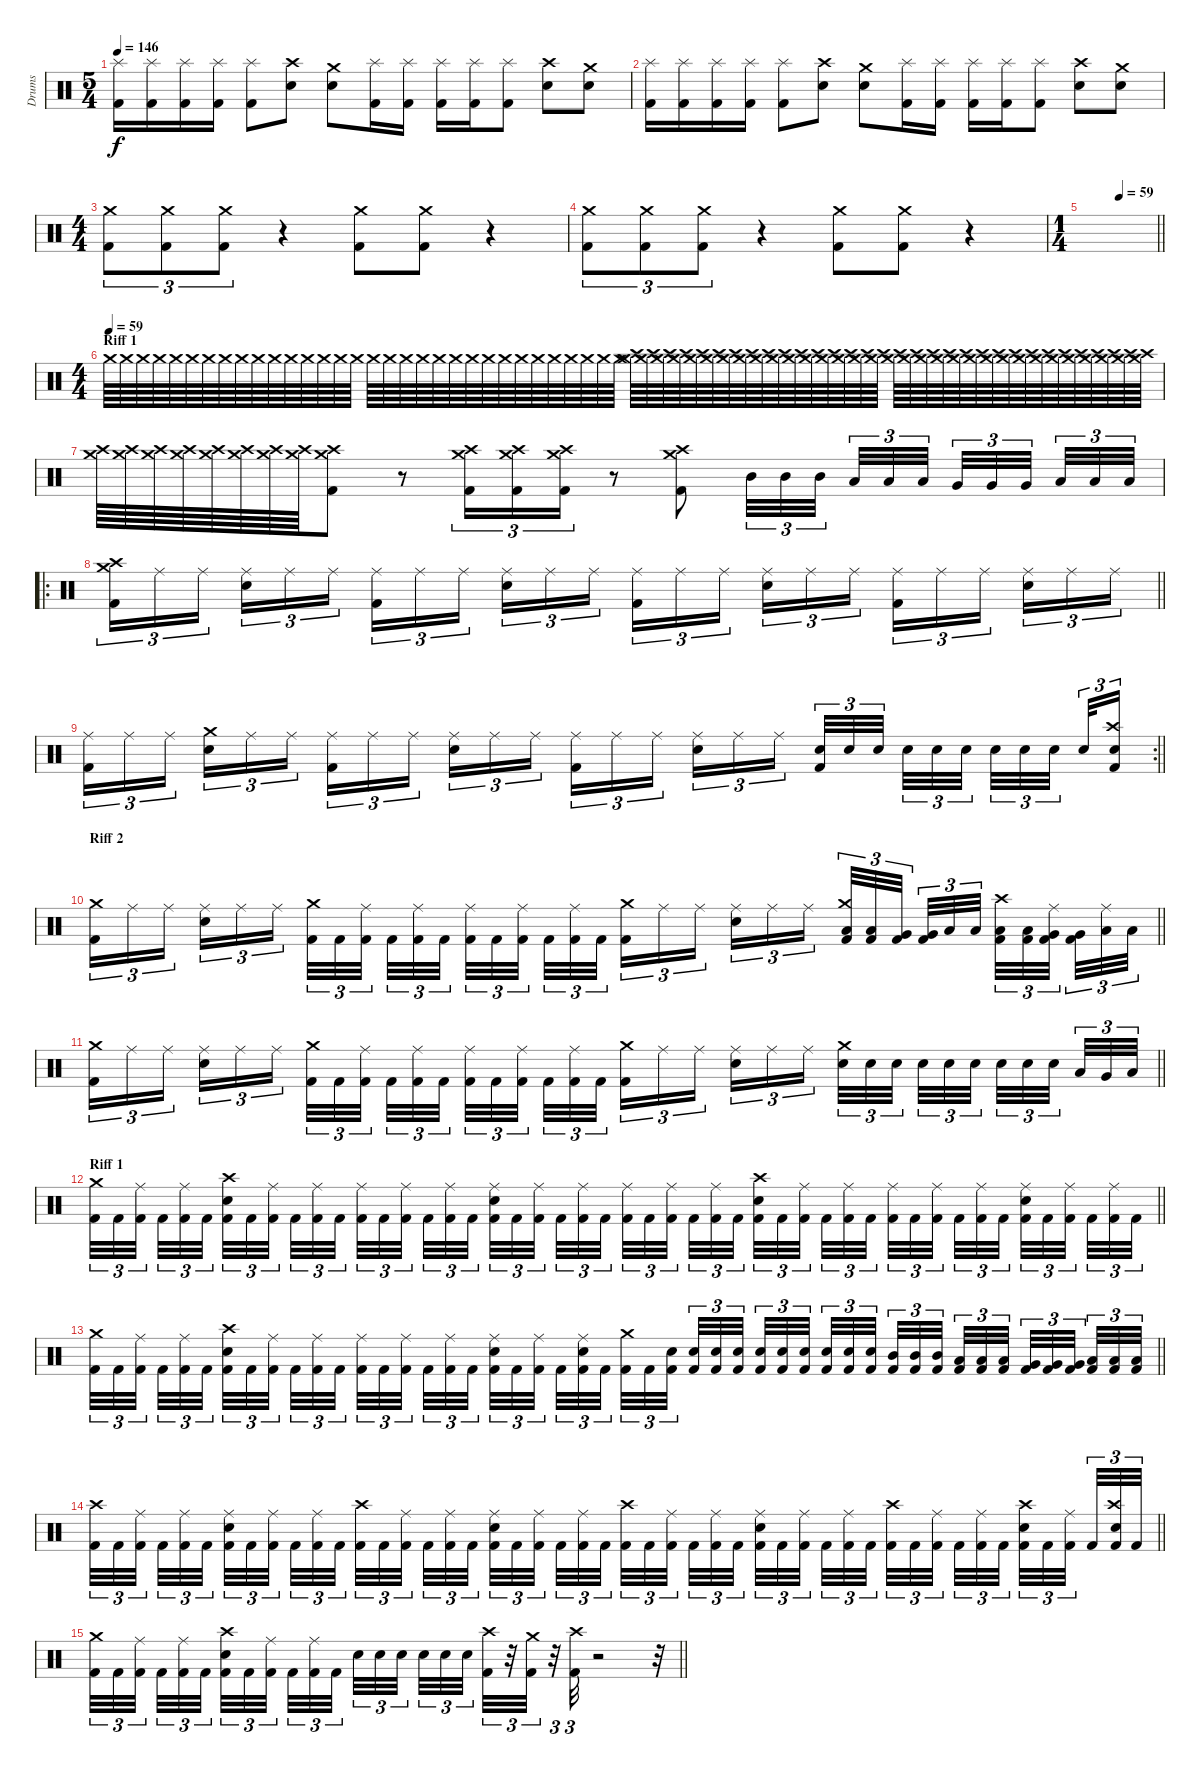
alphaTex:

\track ("Drums" "Drums") {instrument percussion}
\staff {score}
\articulation defaults
\ts (5 4)
\tempo 146
\clef neutral
\ks c
("Splash (hit)" "Kick (hit) 2").16{dy f} ("Splash (hit)" "Kick (hit) 2").16 ("Splash (hit)" "Kick (hit) 2").16 ("Splash (hit)" "Kick (hit) 2").16 ("Splash (hit)" "Kick (hit) 2").8 ("Crash high (hit)" "Snare (hit) 2").8 ("Crash medium (hit)" "Snare (hit) 2").8 ("Splash (hit)" "Kick (hit) 2").16 ("Splash (hit)" "Kick (hit) 2").16 ("Splash (hit)" "Kick (hit) 2").16 ("Splash (hit)" "Kick (hit) 2").16 ("Splash (hit)" "Kick (hit) 2").8 ("Crash high (hit)" "Snare (hit) 2").8 ("Crash medium (hit)" "Snare (hit) 2").8 |
("Splash (hit)" "Kick (hit) 2").16 ("Splash (hit)" "Kick (hit) 2").16 ("Splash (hit)" "Kick (hit) 2").16 ("Splash (hit)" "Kick (hit) 2").16 ("Splash (hit)" "Kick (hit) 2").8 ("Crash high (hit)" "Snare (hit) 2").8 ("Crash medium (hit)" "Snare (hit) 2").8 ("Splash (hit)" "Kick (hit) 2").16 ("Splash (hit)" "Kick (hit) 2").16 ("Splash (hit)" "Kick (hit) 2").16 ("Splash (hit)" "Kick (hit) 2").16 ("Splash (hit)" "Kick (hit) 2").8 ("Crash high (hit)" "Snare (hit) 2").8 ("Crash medium (hit)" "Snare (hit) 2").8 |
\ts (4 4)
("Crash medium (hit)" "Kick (hit) 2").8{tu (3 2)} ("Crash medium (hit)" "Kick (hit) 2").8{tu (3 2)} ("Crash medium (hit)" "Kick (hit) 2").8{tu (3 2)} r.4 ("Crash medium (hit)" "Kick (hit) 2").8 ("Crash medium (hit)" "Kick (hit) 2").8 r.4 |
("Crash medium (hit)" "Kick (hit) 2").8{tu (3 2)} ("Crash medium (hit)" "Kick (hit) 2").8{tu (3 2)} ("Crash medium (hit)" "Kick (hit) 2").8{tu (3 2)} r.4 ("Crash medium (hit)" "Kick (hit) 2").8 ("Crash medium (hit)" "Kick (hit) 2").8 r.4 |
\ts (1 4)
\tempo (59 0.5)
\barLineRight lightlight
|
\ts (4 4)
\section ("" "Riff 1")
\tempo (59)
"Crash medium (hit)".64{volume 0} "Crash medium (hit)".64 "Crash medium (hit)".64 "Crash medium (hit)".64 "Crash medium (hit)".64 "Crash medium (hit)".64 "Crash medium (hit)".64 "Crash medium (hit)".64 "Crash medium (hit)".64 "Crash medium (hit)".64 "Crash medium (hit)".64 "Crash medium (hit)".64 "Crash medium (hit)".64 "Crash medium (hit)".64 "Crash medium (hit)".64 "Crash medium (hit)".64 "Crash medium (hit)".64 "Crash medium (hit)".64 "Crash medium (hit)".64 "Crash medium (hit)".64 "Crash medium (hit)".64 "Crash medium (hit)".64 "Crash medium (hit)".64 "Crash medium (hit)".64 "Crash medium (hit)".64 "Crash medium (hit)".64 "Crash medium (hit)".64 "Crash medium (hit)".64 "Crash medium (hit)".64 "Crash medium (hit)".64 "Crash medium (hit)".64 "Crash medium (hit)".64 ("Crash medium (hit)" "Crash high (hit)").64{volume 13} ("Crash medium (hit)" "Crash high (hit)").64 ("Crash medium (hit)" "Crash high (hit)").64 ("Crash medium (hit)" "Crash high (hit)").64 ("Crash medium (hit)" "Crash high (hit)").64 ("Crash medium (hit)" "Crash high (hit)").64 ("Crash medium (hit)" "Crash high (hit)").64 ("Crash medium (hit)" "Crash high (hit)").64 ("Crash medium (hit)" "Crash high (hit)").64 ("Crash medium (hit)" "Crash high (hit)").64 ("Crash medium (hit)" "Crash high (hit)").64 ("Crash medium (hit)" "Crash high (hit)").64 ("Crash medium (hit)" "Crash high (hit)").64 ("Crash medium (hit)" "Crash high (hit)").64 ("Crash medium (hit)" "Crash high (hit)").64 ("Crash medium (hit)" "Crash high (hit)").64 ("Crash medium (hit)" "Crash high (hit)").64 ("Crash medium (hit)" "Crash high (hit)").64 ("Crash medium (hit)" "Crash high (hit)").64 ("Crash medium (hit)" "Crash high (hit)").64 ("Crash medium (hit)" "Crash high (hit)").64 ("Crash medium (hit)" "Crash high (hit)").64 ("Crash medium (hit)" "Crash high (hit)").64 ("Crash medium (hit)" "Crash high (hit)").64 ("Crash medium (hit)" "Crash high (hit)").64 ("Crash medium (hit)" "Crash high (hit)").64 ("Crash medium (hit)" "Crash high (hit)").64 ("Crash medium (hit)" "Crash high (hit)").64 ("Crash medium (hit)" "Crash high (hit)").64 ("Crash medium (hit)" "Crash high (hit)").64 ("Crash medium (hit)" "Crash high (hit)").64 ("Crash medium (hit)" "Crash high (hit)").64 |
("Crash medium (hit)" "Crash high (hit)").64 ("Crash medium (hit)" "Crash high (hit)").64 ("Crash medium (hit)" "Crash high (hit)").64 ("Crash medium (hit)" "Crash high (hit)").64 ("Crash medium (hit)" "Crash high (hit)").64 ("Crash medium (hit)" "Crash high (hit)").64 ("Crash medium (hit)" "Crash high (hit)").64 ("Crash medium (hit)" "Crash high (hit)").64 ("Crash medium (hit)" "Crash high (hit)" "Kick (hit) 2").8{volume 13} r.8 ("Crash medium (hit)" "Crash high (hit)" "Kick (hit) 2").16{tu (3 2)} ("Crash medium (hit)" "Crash high (hit)" "Kick (hit) 2").16{tu (3 2)} ("Crash medium (hit)" "Crash high (hit)" "Kick (hit) 2").16{tu (3 2)} r.8 ("Crash medium (hit)" "Crash high (hit)" "Kick (hit) 2").8 "Mid Tom (hit)".32{tu (3 2)} "Mid Tom (hit)".32{tu (3 2)} "Mid Tom (hit)".32{tu (3 2) beam splitsecondary} "Low Tom (hit)".32{tu (3 2)} "Low Tom (hit)".32{tu (3 2)} "Low Tom (hit)".32{tu (3 2) beam splitsecondary} "Very Low Tom (hit)".32{tu (3 2)} "Very Low Tom (hit)".32{tu (3 2)} "Very Low Tom (hit)".32{tu (3 2) beam splitsecondary} "Low Floor Tom (hit)".32{tu (3 2)} "Low Floor Tom (hit)".32{tu (3 2)} "Low Floor Tom (hit)".32{tu (3 2)} |
\ro
\barLineRight lightlight
("Crash medium (hit)" "Crash high (hit)" "Kick (hit) 2").16{tu (3 2)} "Ride (middle)".16{tu (3 2)} "Ride (middle)".16{tu (3 2) beam splitsecondary} ("Ride (middle)" "Snare (hit) 2").16{tu (3 2)} "Ride (middle)".16{tu (3 2)} "Ride (middle)".16{tu (3 2)} ("Ride (middle)" "Kick (hit) 2").16{tu (3 2)} "Ride (middle)".16{tu (3 2)} "Ride (middle)".16{tu (3 2) beam splitsecondary} ("Ride (middle)" "Snare (hit) 2").16{tu (3 2)} "Ride (middle)".16{tu (3 2)} "Ride (middle)".16{tu (3 2)} ("Ride (middle)" "Kick (hit) 2").16{tu (3 2)} "Ride (middle)".16{tu (3 2)} "Ride (middle)".16{tu (3 2) beam splitsecondary} ("Ride (middle)" "Snare (hit) 2").16{tu (3 2)} "Ride (middle)".16{tu (3 2)} "Ride (middle)".16{tu (3 2)} ("Ride (middle)" "Kick (hit) 2").16{tu (3 2)} "Ride (middle)".16{tu (3 2)} "Ride (middle)".16{tu (3 2) beam splitsecondary} ("Ride (middle)" "Snare (hit) 2").16{tu (3 2)} "Ride (middle)".16{tu (3 2)} "Ride (middle)".16{tu (3 2)} |
\rc 2
\barLineRight lightlight
("Ride (middle)" "Kick (hit) 2").16{tu (3 2)} "Ride (middle)".16{tu (3 2)} "Ride (middle)".16{tu (3 2) beam splitsecondary} ("Crash medium (hit)" "Snare (hit) 2").16{tu (3 2)} "Ride (middle)".16{tu (3 2)} "Ride (middle)".16{tu (3 2)} ("Ride (middle)" "Kick (hit) 2").16{tu (3 2)} "Ride (middle)".16{tu (3 2)} "Ride (middle)".16{tu (3 2) beam splitsecondary} ("Ride (middle)" "Snare (hit) 2").16{tu (3 2)} "Ride (middle)".16{tu (3 2)} "Ride (middle)".16{tu (3 2)} ("Ride (middle)" "Kick (hit) 2").16{tu (3 2)} "Ride (middle)".16{tu (3 2)} "Ride (middle)".16{tu (3 2) beam splitsecondary} ("Ride (middle)" "Snare (hit) 2").16{tu (3 2)} "Ride (middle)".16{tu (3 2)} "Ride (middle)".16{tu (3 2)} ("Snare (hit) 2" "Kick (hit) 2").32{tu (3 2)} "Snare (hit) 2".32{tu (3 2)} "Snare (hit) 2".32{tu (3 2) beam splitsecondary} "Snare (hit) 2".32{tu (3 2)} "Snare (hit) 2".32{tu (3 2)} "Snare (hit) 2".32{tu (3 2) beam splitsecondary} "Snare (hit) 2".32{tu (3 2)} "Snare (hit) 2".32{tu (3 2)} "Snare (hit) 2".32{tu (3 2) beam splitsecondary} "Snare (hit) 2".32{tu (3 2)} ("Crash high (hit)" "Snare (hit) 2" "Kick (hit) 2").16{tu (3 2)} |
\section ("" "Riff 2")
\barLineRight lightlight
("Crash medium (hit)" "Kick (hit) 2").16{tu (3 2)} "Ride (middle)".16{tu (3 2)} "Ride (middle)".16{tu (3 2) beam splitsecondary} ("Ride (middle)" "Snare (hit) 2").16{tu (3 2)} "Ride (middle)".16{tu (3 2)} "Ride (middle)".16{tu (3 2)} ("Crash medium (hit)" "Kick (hit) 2").32{tu (3 2)} "Kick (hit) 2".32{tu (3 2)} ("Ride (middle)" "Kick (hit) 2").32{tu (3 2) beam splitsecondary} "Kick (hit) 2".32{tu (3 2)} ("Ride (middle)" "Kick (hit) 2").32{tu (3 2)} "Kick (hit) 2".32{tu (3 2) beam splitsecondary} ("Ride (middle)" "Kick (hit) 2").32{tu (3 2)} "Kick (hit) 2".32{tu (3 2)} ("Ride (middle)" "Kick (hit) 2").32{tu (3 2) beam splitsecondary} "Kick (hit) 2".32{tu (3 2)} ("Ride (middle)" "Kick (hit) 2").32{tu (3 2)} "Kick (hit) 2".32{tu (3 2)} ("Crash medium (hit)" "Kick (hit) 2").16{tu (3 2)} "Ride (middle)".16{tu (3 2)} "Ride (middle)".16{tu (3 2) beam splitsecondary} ("Ride (middle)" "Snare (hit) 2").16{tu (3 2)} "Ride (middle)".16{tu (3 2)} "Ride (middle)".16{tu (3 2)} ("Crash medium (hit)" "Low Tom (hit)" "Kick (hit) 2").32{tu (3 2)} ("Low Tom (hit)" "Kick (hit) 2").32{tu (3 2)} ("Very Low Tom (hit)" "Kick (hit) 2").32{tu (3 2) beam splitsecondary} ("Very Low Tom (hit)" "Kick (hit) 2").32{tu (3 2)} "Low Floor Tom (hit)".32{tu (3 2)} "Low Floor Tom (hit)".32{tu (3 2) beam splitsecondary} ("Crash high (hit)" "Low Tom (hit)" "Kick (hit) 2").32{tu (3 2)} ("Low Tom (hit)" "Kick (hit) 2").32{tu (3 2)} ("Ride (middle)" "Very Low Tom (hit)" "Kick (hit) 2").32{tu (3 2) beam splitsecondary} ("Very Low Tom (hit)" "Kick (hit) 2").32{tu (3 2)} ("Ride (middle)" "Low Floor Tom (hit)").32{tu (3 2)} "Low Floor Tom (hit)".32{tu (3 2)} |
\barLineRight lightlight
("Crash medium (hit)" "Kick (hit) 2").16{tu (3 2)} "Ride (middle)".16{tu (3 2)} "Ride (middle)".16{tu (3 2) beam splitsecondary} ("Ride (middle)" "Snare (hit) 2").16{tu (3 2)} "Ride (middle)".16{tu (3 2)} "Ride (middle)".16{tu (3 2)} ("Crash medium (hit)" "Kick (hit) 2").32{tu (3 2)} "Kick (hit) 2".32{tu (3 2)} ("Ride (middle)" "Kick (hit) 2").32{tu (3 2) beam splitsecondary} "Kick (hit) 2".32{tu (3 2)} ("Ride (middle)" "Kick (hit) 2").32{tu (3 2)} "Kick (hit) 2".32{tu (3 2) beam splitsecondary} ("Ride (middle)" "Kick (hit) 2").32{tu (3 2)} "Kick (hit) 2".32{tu (3 2)} ("Ride (middle)" "Kick (hit) 2").32{tu (3 2) beam splitsecondary} "Kick (hit) 2".32{tu (3 2)} ("Ride (middle)" "Kick (hit) 2").32{tu (3 2)} "Kick (hit) 2".32{tu (3 2)} ("Crash medium (hit)" "Kick (hit) 2").16{tu (3 2)} "Ride (middle)".16{tu (3 2)} "Ride (middle)".16{tu (3 2) beam splitsecondary} ("Ride (middle)" "Snare (hit) 2").16{tu (3 2)} "Ride (middle)".16{tu (3 2)} "Ride (middle)".16{tu (3 2)} ("Crash medium (hit)" "Snare (hit) 2").32{tu (3 2)} "Snare (hit) 2".32{tu (3 2)} "Snare (hit) 2".32{tu (3 2) beam splitsecondary} "Snare (hit) 2".32{tu (3 2)} "Snare (hit) 2".32{tu (3 2)} "Snare (hit) 2".32{tu (3 2) beam splitsecondary} "Snare (hit) 2".32{tu (3 2)} "Snare (hit) 2".32{tu (3 2)} "Snare (hit) 2".32{tu (3 2) beam splitsecondary} "Low Tom (hit)".32{tu (3 2)} "Very Low Tom (hit)".32{tu (3 2)} "Low Floor Tom (hit)".32{tu (3 2)} |
\section ("" "Riff 1")
\barLineRight lightlight
("Crash medium (hit)" "Kick (hit) 2").32{tu (3 2)} "Kick (hit) 2".32{tu (3 2)} ("Ride (middle)" "Kick (hit) 2").32{tu (3 2) beam splitsecondary} "Kick (hit) 2".32{tu (3 2)} ("Ride (middle)" "Kick (hit) 2").32{tu (3 2)} "Kick (hit) 2".32{tu (3 2) beam splitsecondary} ("Crash high (hit)" "Snare (hit) 2" "Kick (hit) 2").32{tu (3 2)} "Kick (hit) 2".32{tu (3 2)} ("Ride (middle)" "Kick (hit) 2").32{tu (3 2) beam splitsecondary} "Kick (hit) 2".32{tu (3 2)} ("Ride (middle)" "Kick (hit) 2").32{tu (3 2)} "Kick (hit) 2".32{tu (3 2)} ("Ride (middle)" "Kick (hit) 2").32{tu (3 2)} "Kick (hit) 2".32{tu (3 2)} ("Ride (middle)" "Kick (hit) 2").32{tu (3 2) beam splitsecondary} "Kick (hit) 2".32{tu (3 2)} ("Ride (middle)" "Kick (hit) 2").32{tu (3 2)} "Kick (hit) 2".32{tu (3 2) beam splitsecondary} ("Ride (middle)" "Snare (hit) 2" "Kick (hit) 2").32{tu (3 2)} "Kick (hit) 2".32{tu (3 2)} ("Ride (middle)" "Kick (hit) 2").32{tu (3 2) beam splitsecondary} "Kick (hit) 2".32{tu (3 2)} ("Ride (middle)" "Kick (hit) 2").32{tu (3 2)} "Kick (hit) 2".32{tu (3 2)} ("Ride (middle)" "Kick (hit) 2").32{tu (3 2)} "Kick (hit) 2".32{tu (3 2)} ("Ride (middle)" "Kick (hit) 2").32{tu (3 2) beam splitsecondary} "Kick (hit) 2".32{tu (3 2)} ("Ride (middle)" "Kick (hit) 2").32{tu (3 2)} "Kick (hit) 2".32{tu (3 2) beam splitsecondary} ("Crash high (hit)" "Snare (hit) 2" "Kick (hit) 2").32{tu (3 2)} "Kick (hit) 2".32{tu (3 2)} ("Ride (middle)" "Kick (hit) 2").32{tu (3 2) beam splitsecondary} "Kick (hit) 2".32{tu (3 2)} ("Ride (middle)" "Kick (hit) 2").32{tu (3 2)} "Kick (hit) 2".32{tu (3 2)} ("Ride (middle)" "Kick (hit) 2").32{tu (3 2)} "Kick (hit) 2".32{tu (3 2)} ("Ride (middle)" "Kick (hit) 2").32{tu (3 2) beam splitsecondary} "Kick (hit) 2".32{tu (3 2)} ("Ride (middle)" "Kick (hit) 2").32{tu (3 2)} "Kick (hit) 2".32{tu (3 2) beam splitsecondary} ("Ride (middle)" "Snare (hit) 2" "Kick (hit) 2").32{tu (3 2)} "Kick (hit) 2".32{tu (3 2)} ("Ride (middle)" "Kick (hit) 2").32{tu (3 2) beam splitsecondary} "Kick (hit) 2".32{tu (3 2)} ("Ride (middle)" "Kick (hit) 2").32{tu (3 2)} "Kick (hit) 2".32{tu (3 2)} |
\barLineRight lightlight
("Crash medium (hit)" "Kick (hit) 2").32{tu (3 2)} "Kick (hit) 2".32{tu (3 2)} ("Ride (middle)" "Kick (hit) 2").32{tu (3 2) beam splitsecondary} "Kick (hit) 2".32{tu (3 2)} ("Ride (middle)" "Kick (hit) 2").32{tu (3 2)} "Kick (hit) 2".32{tu (3 2) beam splitsecondary} ("Crash high (hit)" "Snare (hit) 2" "Kick (hit) 2").32{tu (3 2)} "Kick (hit) 2".32{tu (3 2)} ("Ride (middle)" "Kick (hit) 2").32{tu (3 2) beam splitsecondary} "Kick (hit) 2".32{tu (3 2)} ("Ride (middle)" "Kick (hit) 2").32{tu (3 2)} "Kick (hit) 2".32{tu (3 2)} ("Ride (middle)" "Kick (hit) 2").32{tu (3 2)} "Kick (hit) 2".32{tu (3 2)} ("Ride (middle)" "Kick (hit) 2").32{tu (3 2) beam splitsecondary} "Kick (hit) 2".32{tu (3 2)} ("Ride (middle)" "Kick (hit) 2").32{tu (3 2)} "Kick (hit) 2".32{tu (3 2) beam splitsecondary} ("Ride (middle)" "Snare (hit) 2" "Kick (hit) 2").32{tu (3 2)} "Kick (hit) 2".32{tu (3 2)} ("Ride (middle)" "Kick (hit) 2").32{tu (3 2) beam splitsecondary} "Kick (hit) 2".32{tu (3 2)} ("Ride (middle)" "Snare (hit) 2" "Kick (hit) 2").32{tu (3 2)} "Kick (hit) 2".32{tu (3 2)} ("Crash medium (hit)" "Kick (hit) 2").32{tu (3 2)} "Kick (hit) 2".32{tu (3 2)} ("Snare (hit) 2" "Kick (hit) 2").32{tu (3 2) beam splitsecondary} ("Snare (hit) 2" "Kick (hit) 2").32{tu (3 2)} ("Snare (hit) 2" "Kick (hit) 2").32{tu (3 2)} ("Snare (hit) 2" "Kick (hit) 2").32{tu (3 2) beam splitsecondary} ("Snare (hit) 2" "Kick (hit) 2").32{tu (3 2)} ("Snare (hit) 2" "Kick (hit) 2").32{tu (3 2)} ("Snare (hit) 2" "Kick (hit) 2").32{tu (3 2) beam splitsecondary} ("Snare (hit) 2" "Kick (hit) 2").32{tu (3 2)} ("Snare (hit) 2" "Kick (hit) 2").32{tu (3 2)} ("Snare (hit) 2" "Kick (hit) 2").32{tu (3 2)} ("Mid Tom (hit)" "Kick (hit) 2").32{tu (3 2)} ("Mid Tom (hit)" "Kick (hit) 2").32{tu (3 2)} ("Mid Tom (hit)" "Kick (hit) 2").32{tu (3 2) beam splitsecondary} ("Low Tom (hit)" "Kick (hit) 2").32{tu (3 2)} ("Low Tom (hit)" "Kick (hit) 2").32{tu (3 2)} ("Low Tom (hit)" "Kick (hit) 2").32{tu (3 2) beam splitsecondary} ("Very Low Tom (hit)" "Kick (hit) 2").32{tu (3 2)} ("Very Low Tom (hit)" "Kick (hit) 2").32{tu (3 2)} ("Very Low Tom (hit)" "Kick (hit) 2").32{tu (3 2) beam splitsecondary} ("Low Floor Tom (hit)" "Kick (hit) 2").32{tu (3 2)} ("Low Floor Tom (hit)" "Kick (hit) 2").32{tu (3 2)} ("Low Floor Tom (hit)" "Kick (hit) 2").32{tu (3 2)} |
\barLineRight lightlight
("Crash high (hit)" "Kick (hit) 2").32{tu (3 2)} "Kick (hit) 2".32{tu (3 2)} ("Ride (middle)" "Kick (hit) 2").32{tu (3 2) beam splitsecondary} "Kick (hit) 2".32{tu (3 2)} ("Ride (middle)" "Kick (hit) 2").32{tu (3 2)} "Kick (hit) 2".32{tu (3 2) beam splitsecondary} ("Ride (middle)" "Snare (hit) 2" "Kick (hit) 2").32{tu (3 2)} "Kick (hit) 2".32{tu (3 2)} ("Ride (middle)" "Kick (hit) 2").32{tu (3 2) beam splitsecondary} "Kick (hit) 2".32{tu (3 2)} ("Ride (middle)" "Kick (hit) 2").32{tu (3 2)} "Kick (hit) 2".32{tu (3 2)} ("Crash high (hit)" "Kick (hit) 2").32{tu (3 2)} "Kick (hit) 2".32{tu (3 2)} ("Ride (middle)" "Kick (hit) 2").32{tu (3 2) beam splitsecondary} "Kick (hit) 2".32{tu (3 2)} ("Ride (middle)" "Kick (hit) 2").32{tu (3 2)} "Kick (hit) 2".32{tu (3 2) beam splitsecondary} ("Ride (middle)" "Snare (hit) 2" "Kick (hit) 2").32{tu (3 2)} "Kick (hit) 2".32{tu (3 2)} ("Ride (middle)" "Kick (hit) 2").32{tu (3 2) beam splitsecondary} "Kick (hit) 2".32{tu (3 2)} ("Ride (middle)" "Kick (hit) 2").32{tu (3 2)} "Kick (hit) 2".32{tu (3 2)} ("Crash high (hit)" "Kick (hit) 2").32{tu (3 2)} "Kick (hit) 2".32{tu (3 2)} ("Ride (middle)" "Kick (hit) 2").32{tu (3 2) beam splitsecondary} "Kick (hit) 2".32{tu (3 2)} ("Ride (middle)" "Kick (hit) 2").32{tu (3 2)} "Kick (hit) 2".32{tu (3 2) beam splitsecondary} ("Ride (middle)" "Snare (hit) 2" "Kick (hit) 2").32{tu (3 2)} "Kick (hit) 2".32{tu (3 2)} ("Ride (middle)" "Kick (hit) 2").32{tu (3 2) beam splitsecondary} "Kick (hit) 2".32{tu (3 2)} ("Ride (middle)" "Kick (hit) 2").32{tu (3 2)} "Kick (hit) 2".32{tu (3 2)} ("Crash high (hit)" "Kick (hit) 2").32{tu (3 2)} "Kick (hit) 2".32{tu (3 2)} ("Ride (middle)" "Kick (hit) 2").32{tu (3 2) beam splitsecondary} "Kick (hit) 2".32{tu (3 2)} ("Ride (middle)" "Kick (hit) 2").32{tu (3 2)} "Kick (hit) 2".32{tu (3 2) beam splitsecondary} ("Crash high (hit)" "Snare (hit) 2" "Kick (hit) 2").32{tu (3 2)} "Kick (hit) 2".32{tu (3 2)} ("Ride (middle)" "Kick (hit) 2").32{tu (3 2) beam splitsecondary} "Kick (hit) 2".32{tu (3 2)} ("Crash high (hit)" "Snare (hit) 2" "Kick (hit) 2").32{tu (3 2)} "Kick (hit) 2".32{tu (3 2)} |
\barLineRight lightlight
("Crash medium (hit)" "Kick (hit) 2").32{tu (3 2)} "Kick (hit) 2".32{tu (3 2)} ("Ride (middle)" "Kick (hit) 2").32{tu (3 2) beam splitsecondary} "Kick (hit) 2".32{tu (3 2)} ("Ride (middle)" "Kick (hit) 2").32{tu (3 2)} "Kick (hit) 2".32{tu (3 2) beam splitsecondary} ("Crash high (hit)" "Snare (hit) 2" "Kick (hit) 2").32{tu (3 2)} "Kick (hit) 2".32{tu (3 2)} ("Ride (middle)" "Kick (hit) 2").32{tu (3 2) beam splitsecondary} "Kick (hit) 2".32{tu (3 2)} ("Ride (middle)" "Kick (hit) 2").32{tu (3 2)} "Kick (hit) 2".32{tu (3 2)} "Snare (hit) 2".32{tu (3 2)} "Snare (hit) 2".32{tu (3 2)} "Snare (hit) 2".32{tu (3 2) beam splitsecondary} "Snare (hit) 2".32{tu (3 2)} "Snare (hit) 2".32{tu (3 2)} "Snare (hit) 2".32{tu (3 2) beam splitsecondary} ("Crash high (hit)" "Kick (hit) 2").32{tu (3 2)} r.32{tu (3 2)} ("Crash medium (hit)" "Kick (hit) 2").32{tu (3 2)} r.32{tu (3 2)} ("Crash high (hit)" "Kick (hit) 2").32{tu (3 2)} r.2 r.32{tu (3 2)}
